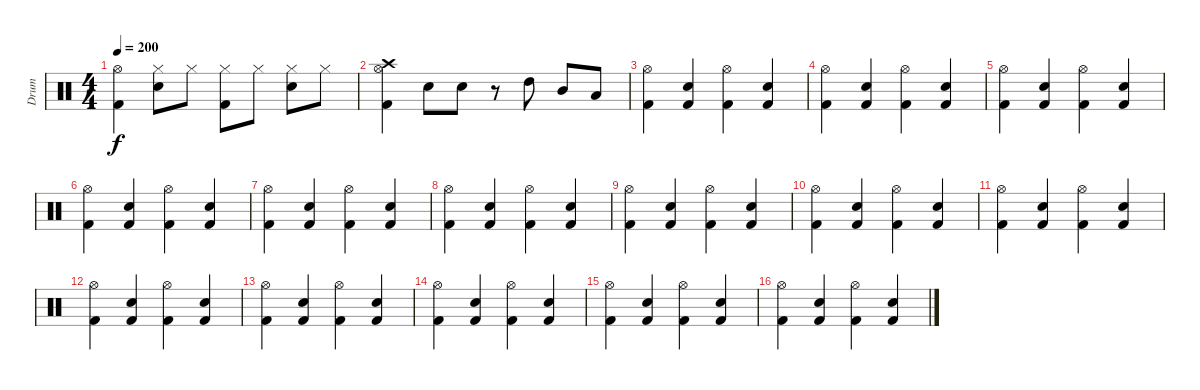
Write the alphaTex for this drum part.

\track ("Drum" "Drum") {instrument percussion}
\staff {score}
\articulation defaults
\ts (4 4)
\tempo 200
\clef neutral
\ks c
("Hi-Hat (open)" "Kick (hit) 2").4{dy f} ("Hi-Hat (closed)" "Snare (hit) 2").8 "Hi-Hat (closed)".8 ("Hi-Hat (closed)" "Kick (hit) 2").8 "Hi-Hat (closed)".8 ("Hi-Hat (closed)" "Snare (hit) 2").8 "Hi-Hat (closed)".8 |
("Crash high (hit)" "Hi-Hat (open)" "Kick (hit) 2").4 "Snare (hit) 2".8 "Snare (hit) 2".8 r.8 "High Tom (hit)".8 "Mid Tom (hit)".8 "Low Tom (hit)".8 |
("Hi-Hat (open)" "Kick (hit) 2").4 ("Snare (hit) 2" "Kick (hit) 2").4 ("Hi-Hat (open)" "Kick (hit) 2").4 ("Snare (hit) 2" "Kick (hit) 2").4 |
("Hi-Hat (open)" "Kick (hit) 2").4 ("Snare (hit) 2" "Kick (hit) 2").4 ("Hi-Hat (open)" "Kick (hit) 2").4 ("Snare (hit) 2" "Kick (hit) 2").4 |
("Hi-Hat (open)" "Kick (hit) 2").4 ("Snare (hit) 2" "Kick (hit) 2").4 ("Hi-Hat (open)" "Kick (hit) 2").4 ("Snare (hit) 2" "Kick (hit) 2").4 |
("Hi-Hat (open)" "Kick (hit) 2").4 ("Snare (hit) 2" "Kick (hit) 2").4 ("Hi-Hat (open)" "Kick (hit) 2").4 ("Snare (hit) 2" "Kick (hit) 2").4 |
("Hi-Hat (open)" "Kick (hit) 2").4 ("Snare (hit) 2" "Kick (hit) 2").4 ("Hi-Hat (open)" "Kick (hit) 2").4 ("Snare (hit) 2" "Kick (hit) 2").4 |
("Hi-Hat (open)" "Kick (hit) 2").4 ("Snare (hit) 2" "Kick (hit) 2").4 ("Hi-Hat (open)" "Kick (hit) 2").4 ("Snare (hit) 2" "Kick (hit) 2").4 |
("Hi-Hat (open)" "Kick (hit) 2").4 ("Snare (hit) 2" "Kick (hit) 2").4 ("Hi-Hat (open)" "Kick (hit) 2").4 ("Snare (hit) 2" "Kick (hit) 2").4 |
("Hi-Hat (open)" "Kick (hit) 2").4 ("Snare (hit) 2" "Kick (hit) 2").4 ("Hi-Hat (open)" "Kick (hit) 2").4 ("Snare (hit) 2" "Kick (hit) 2").4 |
("Hi-Hat (open)" "Kick (hit) 2").4 ("Snare (hit) 2" "Kick (hit) 2").4 ("Hi-Hat (open)" "Kick (hit) 2").4 ("Snare (hit) 2" "Kick (hit) 2").4 |
("Hi-Hat (open)" "Kick (hit) 2").4 ("Snare (hit) 2" "Kick (hit) 2").4 ("Hi-Hat (open)" "Kick (hit) 2").4 ("Snare (hit) 2" "Kick (hit) 2").4 |
("Hi-Hat (open)" "Kick (hit) 2").4 ("Snare (hit) 2" "Kick (hit) 2").4 ("Hi-Hat (open)" "Kick (hit) 2").4 ("Snare (hit) 2" "Kick (hit) 2").4 |
("Hi-Hat (open)" "Kick (hit) 2").4 ("Snare (hit) 2" "Kick (hit) 2").4 ("Hi-Hat (open)" "Kick (hit) 2").4 ("Snare (hit) 2" "Kick (hit) 2").4 |
("Hi-Hat (open)" "Kick (hit) 2").4 ("Snare (hit) 2" "Kick (hit) 2").4 ("Hi-Hat (open)" "Kick (hit) 2").4 ("Snare (hit) 2" "Kick (hit) 2").4 |
("Hi-Hat (open)" "Kick (hit) 2").4 ("Snare (hit) 2" "Kick (hit) 2").4 ("Hi-Hat (open)" "Kick (hit) 2").4 ("Snare (hit) 2" "Kick (hit) 2").4
